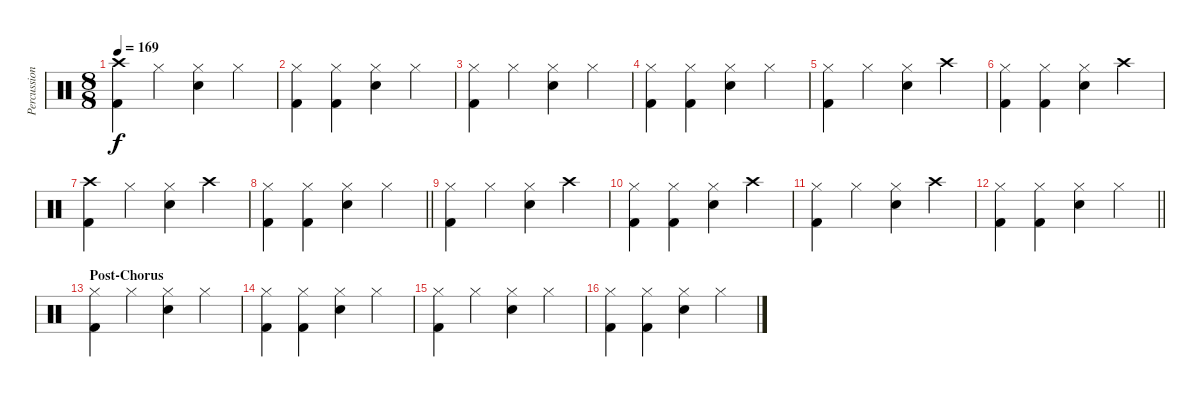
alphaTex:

\track ("Percussion" "Percussion") {instrument percussion}
\staff {score}
\articulation defaults
\ts (8 8)
\tempo 169
\clef neutral
\ks c
("Crash high (hit)" "Kick (hit) 2").4{dy f} "Hi-Hat (closed)".4 ("Hi-Hat (closed)" "Snare (hit) 2").4 "Hi-Hat (closed)".4 |
("Hi-Hat (closed)" "Kick (hit) 2").4 ("Hi-Hat (closed)" "Kick (hit) 2").4 ("Hi-Hat (closed)" "Snare (hit) 2").4 "Hi-Hat (closed)".4 |
("Hi-Hat (closed)" "Kick (hit) 2").4 "Hi-Hat (closed)".4 ("Hi-Hat (closed)" "Snare (hit) 2").4 "Hi-Hat (closed)".4 |
("Hi-Hat (closed)" "Kick (hit) 2").4 ("Hi-Hat (closed)" "Kick (hit) 2").4 ("Hi-Hat (closed)" "Snare (hit) 2").4 "Hi-Hat (closed)".4 |
("Hi-Hat (closed)" "Kick (hit) 2").4 "Hi-Hat (closed)".4 ("Hi-Hat (closed)" "Snare (hit) 2").4 "Crash high (hit)".4 |
("Hi-Hat (closed)" "Kick (hit) 2").4 ("Hi-Hat (closed)" "Kick (hit) 2").4 ("Hi-Hat (closed)" "Snare (hit) 2").4 "Crash high (hit)".4 |
("Crash high (hit)" "Kick (hit) 2").4 "Hi-Hat (closed)".4 ("Hi-Hat (closed)" "Snare (hit) 2").4 "Crash high (hit)".4 |
\barLineRight lightlight
("Hi-Hat (closed)" "Kick (hit) 2").4 ("Hi-Hat (closed)" "Kick (hit) 2").4 ("Hi-Hat (closed)" "Snare (hit) 2").4 "Hi-Hat (closed)".4 |
("Hi-Hat (closed)" "Kick (hit) 2").4 "Hi-Hat (closed)".4 ("Hi-Hat (closed)" "Snare (hit) 2").4 "Crash high (hit)".4 |
("Hi-Hat (closed)" "Kick (hit) 2").4 ("Hi-Hat (closed)" "Kick (hit) 2").4 ("Hi-Hat (closed)" "Snare (hit) 2").4 "Crash high (hit)".4 |
("Hi-Hat (closed)" "Kick (hit) 2").4 "Hi-Hat (closed)".4 ("Hi-Hat (closed)" "Snare (hit) 2").4 "Crash high (hit)".4 |
\barLineRight lightlight
("Hi-Hat (closed)" "Kick (hit) 2").4 ("Hi-Hat (closed)" "Kick (hit) 2").4 ("Hi-Hat (closed)" "Snare (hit) 2").4 "Hi-Hat (closed)".4 |
\section ("" "Post-Chorus")
("Hi-Hat (closed)" "Kick (hit) 2").4 "Hi-Hat (closed)".4 ("Hi-Hat (closed)" "Snare (hit) 2").4 "Hi-Hat (closed)".4 |
("Hi-Hat (closed)" "Kick (hit) 2").4 ("Hi-Hat (closed)" "Kick (hit) 2").4 ("Hi-Hat (closed)" "Snare (hit) 2").4 "Hi-Hat (closed)".4 |
("Hi-Hat (closed)" "Kick (hit) 2").4 "Hi-Hat (closed)".4 ("Hi-Hat (closed)" "Snare (hit) 2").4 "Hi-Hat (closed)".4 |
("Hi-Hat (closed)" "Kick (hit) 2").4 ("Hi-Hat (closed)" "Kick (hit) 2").4 ("Hi-Hat (closed)" "Snare (hit) 2").4 "Hi-Hat (closed)".4
